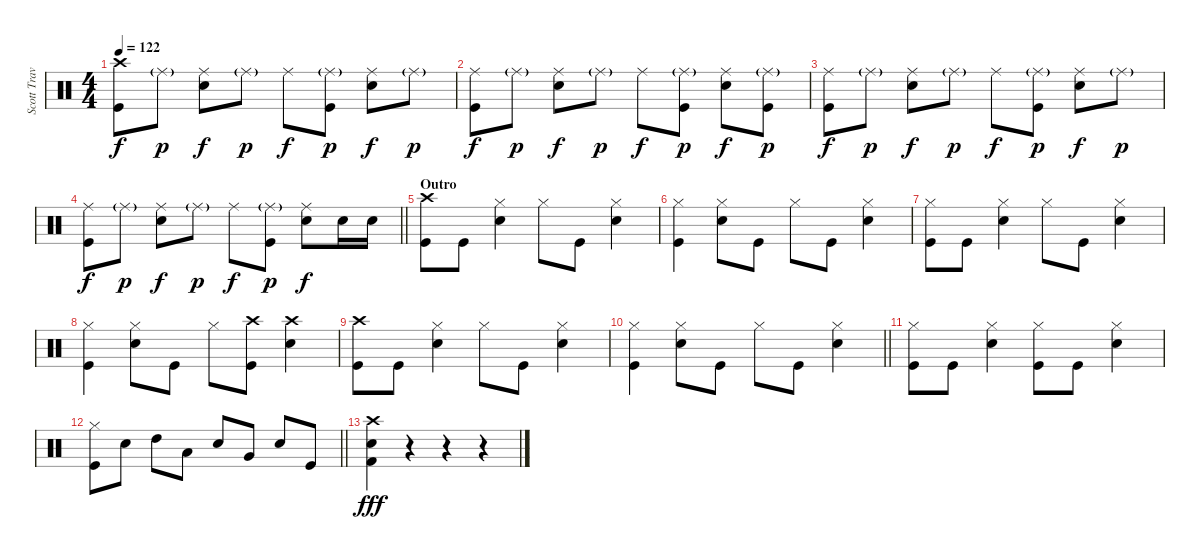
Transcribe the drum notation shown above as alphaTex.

\track ("Scott Travis" "Scott Trav") {instrument percussion}
\staff {score}
\articulation defaults
\ts (4 4)
\tempo 122
\clef neutral
\ks c
("Crash high (hit)" "Kick (hit)").8{dy f} "Ride (middle)"{g}.8{dy p} ("Ride (middle)" "Snare (hit) 2").8{dy f} "Ride (middle)"{g}.8{dy p} "Ride (middle)".8{dy f} ("Ride (middle)"{g} "Kick (hit)").8{dy p} ("Ride (middle)" "Snare (hit) 2").8{dy f} "Ride (middle)"{g}.8{dy p} |
("Ride (middle)" "Kick (hit)").8{dy f} "Ride (middle)"{g}.8{dy p} ("Ride (middle)" "Snare (hit) 2").8{dy f} "Ride (middle)"{g}.8{dy p} "Ride (middle)".8{dy f} ("Ride (middle)"{g} "Kick (hit)").8{dy p} ("Ride (middle)" "Snare (hit) 2").8{dy f} ("Ride (middle)"{g} "Kick (hit)").8{dy p} |
("Ride (middle)" "Kick (hit)").8{dy f} "Ride (middle)"{g}.8{dy p} ("Ride (middle)" "Snare (hit) 2").8{dy f} "Ride (middle)"{g}.8{dy p} "Ride (middle)".8{dy f} ("Ride (middle)"{g} "Kick (hit)").8{dy p} ("Ride (middle)" "Snare (hit) 2").8{dy f} "Ride (middle)"{g}.8{dy p} |
\barLineRight lightlight
("Ride (middle)" "Kick (hit)").8{dy f} "Ride (middle)"{g}.8{dy p} ("Ride (middle)" "Snare (hit) 2").8{dy f} "Ride (middle)"{g}.8{dy p} "Ride (middle)".8{dy f} ("Ride (middle)"{g} "Kick (hit)").8{dy p} ("Ride (middle)" "Snare (hit) 2").8{dy f} "Snare (hit) 2".16 "Snare (hit) 2".16 |
\section ("" "Outro")
("Crash high (hit)" "Kick (hit)").8 "Kick (hit)".8 ("Hi-Hat (closed)" "Snare (hit) 2").4 "Hi-Hat (closed)".8 "Kick (hit)".8 ("Hi-Hat (closed)" "Snare (hit) 2").4 |
("Hi-Hat (closed)" "Kick (hit)").4 ("Hi-Hat (closed)" "Snare (hit) 2").8 "Kick (hit)".8 "Hi-Hat (closed)".8 "Kick (hit)".8 ("Hi-Hat (closed)" "Snare (hit) 2").4 |
("Hi-Hat (closed)" "Kick (hit)").8 "Kick (hit)".8 ("Hi-Hat (closed)" "Snare (hit) 2").4 "Hi-Hat (closed)".8 "Kick (hit)".8 ("Hi-Hat (closed)" "Snare (hit) 2").4 |
("Hi-Hat (closed)" "Kick (hit)").4 ("Hi-Hat (closed)" "Snare (hit) 2").8 "Kick (hit)".8 "Hi-Hat (closed)".8 ("Crash high (hit)" "Kick (hit)").8 ("Crash high (hit)" "Snare (hit) 2").4 |
("Crash high (hit)" "Kick (hit)").8 "Kick (hit)".8 ("Hi-Hat (closed)" "Snare (hit) 2").4 "Hi-Hat (closed)".8 "Kick (hit)".8 ("Hi-Hat (closed)" "Snare (hit) 2").4 |
\barLineRight lightlight
("Hi-Hat (closed)" "Kick (hit)").4 ("Hi-Hat (closed)" "Snare (hit) 2").8 "Kick (hit)".8 "Hi-Hat (closed)".8 "Kick (hit)".8 ("Hi-Hat (closed)" "Snare (hit) 2").4 |
("Hi-Hat (closed)" "Kick (hit)").8 "Kick (hit)".8 ("Hi-Hat (closed)" "Snare (hit) 2").4 ("Hi-Hat (closed)" "Kick (hit)").8 "Kick (hit)".8 ("Hi-Hat (closed)" "Snare (hit) 2").4 |
\barLineRight lightlight
("Hi-Hat (closed)" "Kick (hit)").8 "Snare (hit) 2".8 "High Tom (hit)".8 "Low Tom (hit)".8 "Snare (hit) 2".8 "Very Low Tom (hit)".8 "Snare (hit) 2".8 "Kick (hit)".8 |
("Crash high (hit)" "Snare (hit) 2" "Kick (hit) 2").4{dy fff} r.4 r.4 r.4
